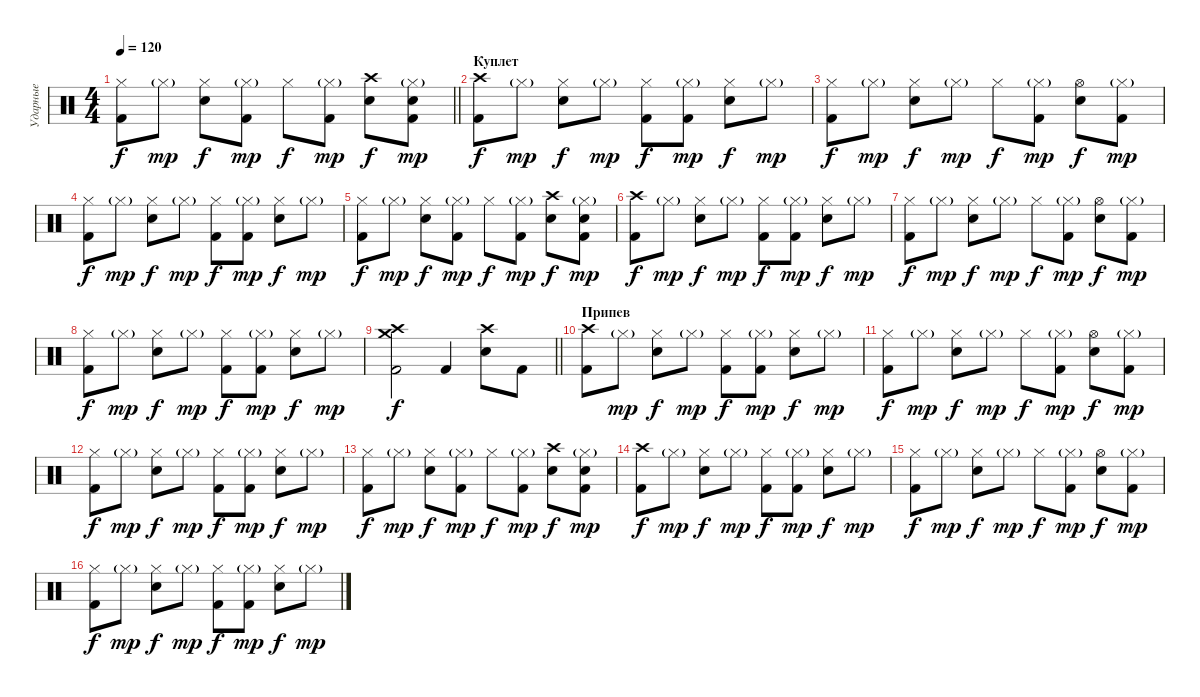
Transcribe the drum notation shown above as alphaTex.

\track ("Ударные" "Ударные") {instrument percussion}
\staff {score}
\articulation defaults
\ts (4 4)
\tempo 120
\clef neutral
\barLineRight lightlight
\ks c
("Hi-Hat (closed)" "Kick (hit) 2").8{dy f} "Hi-Hat (closed)"{g}.8{dy mp} ("Hi-Hat (closed)" "Electric Snare (hit)").8{dy f} ("Hi-Hat (closed)"{g} "Kick (hit) 2").8{dy mp} "Hi-Hat (closed)".8{dy f} ("Hi-Hat (closed)"{g} "Kick (hit) 2").8{dy mp} ("Crash high (hit)" "Electric Snare (hit)").8{dy f} ("Hi-Hat (closed)"{g} "Kick (hit) 2" "Electric Snare (hit)").8{dy mp} |
\section ("" "Куплет")
("Crash high (hit)" "Kick (hit) 2").8{dy f} "Hi-Hat (closed)"{g}.8{dy mp} ("Hi-Hat (closed)" "Electric Snare (hit)").8{dy f} "Hi-Hat (closed)"{g}.8{dy mp} ("Hi-Hat (closed)" "Kick (hit) 2").8{dy f} ("Hi-Hat (closed)"{g} "Kick (hit) 2").8{dy mp} ("Hi-Hat (closed)" "Electric Snare (hit)").8{dy f} "Hi-Hat (closed)"{g}.8{dy mp} |
("Hi-Hat (closed)" "Kick (hit) 2").8{dy f} "Hi-Hat (closed)"{g}.8{dy mp} ("Hi-Hat (closed)" "Electric Snare (hit)").8{dy f} "Hi-Hat (closed)"{g}.8{dy mp} "Hi-Hat (closed)".8{dy f} ("Hi-Hat (closed)"{g} "Kick (hit) 2").8{dy mp} ("Hi-Hat (open)" "Electric Snare (hit)").8{dy f} ("Hi-Hat (closed)"{g} "Kick (hit) 2").8{dy mp} |
("Hi-Hat (closed)" "Kick (hit) 2").8{dy f} "Hi-Hat (closed)"{g}.8{dy mp} ("Hi-Hat (closed)" "Electric Snare (hit)").8{dy f} "Hi-Hat (closed)"{g}.8{dy mp} ("Hi-Hat (closed)" "Kick (hit) 2").8{dy f} ("Hi-Hat (closed)"{g} "Kick (hit) 2").8{dy mp} ("Hi-Hat (closed)" "Electric Snare (hit)").8{dy f} "Hi-Hat (closed)"{g}.8{dy mp} |
("Hi-Hat (closed)" "Kick (hit) 2").8{dy f} "Hi-Hat (closed)"{g}.8{dy mp} ("Hi-Hat (closed)" "Electric Snare (hit)").8{dy f} ("Hi-Hat (closed)"{g} "Kick (hit) 2").8{dy mp} "Hi-Hat (closed)".8{dy f} ("Hi-Hat (closed)"{g} "Kick (hit) 2").8{dy mp} ("Crash high (hit)" "Electric Snare (hit)").8{dy f} ("Hi-Hat (closed)"{g} "Kick (hit) 2" "Electric Snare (hit)").8{dy mp} |
("Crash high (hit)" "Kick (hit) 2").8{dy f} "Hi-Hat (closed)"{g}.8{dy mp} ("Hi-Hat (closed)" "Electric Snare (hit)").8{dy f} "Hi-Hat (closed)"{g}.8{dy mp} ("Hi-Hat (closed)" "Kick (hit) 2").8{dy f} ("Hi-Hat (closed)"{g} "Kick (hit) 2").8{dy mp} ("Hi-Hat (closed)" "Electric Snare (hit)").8{dy f} "Hi-Hat (closed)"{g}.8{dy mp} |
("Hi-Hat (closed)" "Kick (hit) 2").8{dy f} "Hi-Hat (closed)"{g}.8{dy mp} ("Hi-Hat (closed)" "Electric Snare (hit)").8{dy f} "Hi-Hat (closed)"{g}.8{dy mp} "Hi-Hat (closed)".8{dy f} ("Hi-Hat (closed)"{g} "Kick (hit) 2").8{dy mp} ("Hi-Hat (open)" "Electric Snare (hit)").8{dy f} ("Hi-Hat (closed)"{g} "Kick (hit) 2").8{dy mp} |
("Hi-Hat (closed)" "Kick (hit) 2").8{dy f} "Hi-Hat (closed)"{g}.8{dy mp} ("Hi-Hat (closed)" "Electric Snare (hit)").8{dy f} "Hi-Hat (closed)"{g}.8{dy mp} ("Hi-Hat (closed)" "Kick (hit) 2").8{dy f} ("Hi-Hat (closed)"{g} "Kick (hit) 2").8{dy mp} ("Hi-Hat (closed)" "Electric Snare (hit)").8{dy f} "Hi-Hat (closed)"{g}.8{dy mp} |
\barLineRight lightlight
("Kick (hit) 2" "Crash high (hit)" "Crash medium (hit)").2{dy f} "Kick (hit) 2".4 ("Electric Snare (hit)" "Crash high (hit)").8 "Kick (hit) 2".8 |
\section ("" "Припев")
("Crash high (hit)" "Kick (hit) 2").8 "Hi-Hat (closed)"{g}.8{dy mp} ("Hi-Hat (closed)" "Electric Snare (hit)").8{dy f} "Hi-Hat (closed)"{g}.8{dy mp} ("Hi-Hat (closed)" "Kick (hit) 2").8{dy f} ("Hi-Hat (closed)"{g} "Kick (hit) 2").8{dy mp} ("Hi-Hat (closed)" "Electric Snare (hit)").8{dy f} "Hi-Hat (closed)"{g}.8{dy mp} |
("Hi-Hat (closed)" "Kick (hit) 2").8{dy f} "Hi-Hat (closed)"{g}.8{dy mp} ("Hi-Hat (closed)" "Electric Snare (hit)").8{dy f} "Hi-Hat (closed)"{g}.8{dy mp} "Hi-Hat (closed)".8{dy f} ("Hi-Hat (closed)"{g} "Kick (hit) 2").8{dy mp} ("Hi-Hat (open)" "Electric Snare (hit)").8{dy f} ("Hi-Hat (closed)"{g} "Kick (hit) 2").8{dy mp} |
("Hi-Hat (closed)" "Kick (hit) 2").8{dy f} "Hi-Hat (closed)"{g}.8{dy mp} ("Hi-Hat (closed)" "Electric Snare (hit)").8{dy f} "Hi-Hat (closed)"{g}.8{dy mp} ("Hi-Hat (closed)" "Kick (hit) 2").8{dy f} ("Hi-Hat (closed)"{g} "Kick (hit) 2").8{dy mp} ("Hi-Hat (closed)" "Electric Snare (hit)").8{dy f} "Hi-Hat (closed)"{g}.8{dy mp} |
("Hi-Hat (closed)" "Kick (hit) 2").8{dy f} "Hi-Hat (closed)"{g}.8{dy mp} ("Hi-Hat (closed)" "Electric Snare (hit)").8{dy f} ("Hi-Hat (closed)"{g} "Kick (hit) 2").8{dy mp} "Hi-Hat (closed)".8{dy f} ("Hi-Hat (closed)"{g} "Kick (hit) 2").8{dy mp} ("Crash high (hit)" "Electric Snare (hit)").8{dy f} ("Hi-Hat (closed)"{g} "Kick (hit) 2" "Electric Snare (hit)").8{dy mp} |
("Crash high (hit)" "Kick (hit) 2").8{dy f} "Hi-Hat (closed)"{g}.8{dy mp} ("Hi-Hat (closed)" "Electric Snare (hit)").8{dy f} "Hi-Hat (closed)"{g}.8{dy mp} ("Hi-Hat (closed)" "Kick (hit) 2").8{dy f} ("Hi-Hat (closed)"{g} "Kick (hit) 2").8{dy mp} ("Hi-Hat (closed)" "Electric Snare (hit)").8{dy f} "Hi-Hat (closed)"{g}.8{dy mp} |
("Hi-Hat (closed)" "Kick (hit) 2").8{dy f} "Hi-Hat (closed)"{g}.8{dy mp} ("Hi-Hat (closed)" "Electric Snare (hit)").8{dy f} "Hi-Hat (closed)"{g}.8{dy mp} "Hi-Hat (closed)".8{dy f} ("Hi-Hat (closed)"{g} "Kick (hit) 2").8{dy mp} ("Hi-Hat (open)" "Electric Snare (hit)").8{dy f} ("Hi-Hat (closed)"{g} "Kick (hit) 2").8{dy mp} |
("Hi-Hat (closed)" "Kick (hit) 2").8{dy f} "Hi-Hat (closed)"{g}.8{dy mp} ("Hi-Hat (closed)" "Electric Snare (hit)").8{dy f} "Hi-Hat (closed)"{g}.8{dy mp} ("Hi-Hat (closed)" "Kick (hit) 2").8{dy f} ("Hi-Hat (closed)"{g} "Kick (hit) 2").8{dy mp} ("Hi-Hat (closed)" "Electric Snare (hit)").8{dy f} "Hi-Hat (closed)"{g}.8{dy mp}
